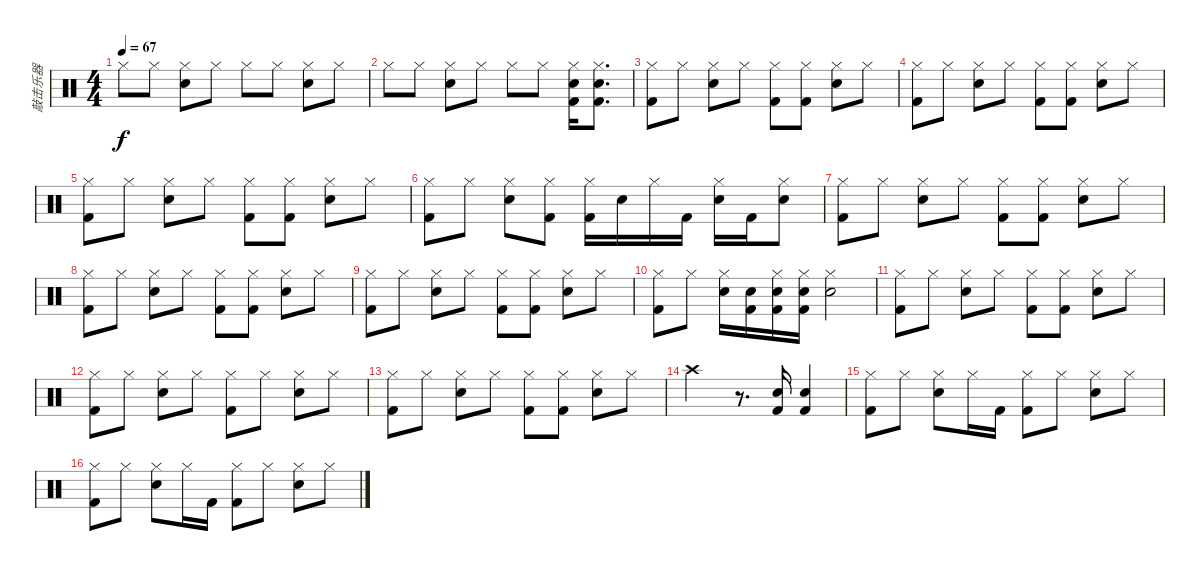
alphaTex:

\track ("敲击乐器" "敲击乐器") {instrument percussion}
\staff {score}
\articulation defaults
\ts (4 4)
\tempo 67
\clef neutral
\ks c "Hi-Hat (closed)".8{dy f} "Hi-Hat (closed)".8
("Hi-Hat (closed)" "Electric Snare (hit)").8 "Hi-Hat (closed)".8 "Hi-Hat (closed)".8 "Hi-Hat (closed)".8 ("Hi-Hat (closed)" "Electric Snare (hit)").8 "Hi-Hat (closed)".8 |
"Hi-Hat (closed)".8 "Hi-Hat (closed)".8 ("Hi-Hat (closed)" "Electric Snare (hit)").8 "Hi-Hat (closed)".8 "Hi-Hat (closed)".8 "Hi-Hat (closed)".8 ("Hi-Hat (closed)" "Electric Snare (hit)" "Kick (hit) 2").16 ("Hi-Hat (closed)" "Electric Snare (hit)" "Kick (hit) 2").8{d} |
("Hi-Hat (closed)" "Kick (hit) 2").8 "Hi-Hat (closed)".8 ("Hi-Hat (closed)" "Electric Snare (hit)").8 "Hi-Hat (closed)".8 ("Hi-Hat (closed)" "Kick (hit) 2").8 ("Hi-Hat (closed)" "Kick (hit) 2").8 ("Hi-Hat (closed)" "Electric Snare (hit)").8 "Hi-Hat (closed)".8 |
("Hi-Hat (closed)" "Kick (hit) 2").8 "Hi-Hat (closed)".8 ("Hi-Hat (closed)" "Electric Snare (hit)").8 "Hi-Hat (closed)".8 ("Hi-Hat (closed)" "Kick (hit) 2").8 ("Hi-Hat (closed)" "Kick (hit) 2").8 ("Hi-Hat (closed)" "Electric Snare (hit)").8 "Hi-Hat (closed)".8 |
("Hi-Hat (closed)" "Kick (hit) 2").8 "Hi-Hat (closed)".8 ("Hi-Hat (closed)" "Electric Snare (hit)").8 "Hi-Hat (closed)".8 ("Hi-Hat (closed)" "Kick (hit) 2").8 ("Hi-Hat (closed)" "Kick (hit) 2").8 ("Hi-Hat (closed)" "Electric Snare (hit)").8 "Hi-Hat (closed)".8 |
("Hi-Hat (closed)" "Kick (hit) 2").8 "Hi-Hat (closed)".8 ("Hi-Hat (closed)" "Electric Snare (hit)").8 ("Hi-Hat (closed)" "Kick (hit) 2").8 ("Hi-Hat (closed)" "Kick (hit) 2").16 "Electric Snare (hit)".16 "Hi-Hat (closed)".16 "Kick (hit) 2".16 ("Hi-Hat (closed)" "Electric Snare (hit)").16 "Kick (hit) 2".16 ("Hi-Hat (closed)" "Electric Snare (hit)").8 |
("Hi-Hat (closed)" "Kick (hit) 2").8 "Hi-Hat (closed)".8 ("Hi-Hat (closed)" "Electric Snare (hit)").8 "Hi-Hat (closed)".8 ("Hi-Hat (closed)" "Kick (hit) 2").8 ("Hi-Hat (closed)" "Kick (hit) 2").8 ("Hi-Hat (closed)" "Electric Snare (hit)").8 "Hi-Hat (closed)".8 |
("Hi-Hat (closed)" "Kick (hit) 2").8 "Hi-Hat (closed)".8 ("Hi-Hat (closed)" "Electric Snare (hit)").8 "Hi-Hat (closed)".8 ("Hi-Hat (closed)" "Kick (hit) 2").8 ("Hi-Hat (closed)" "Kick (hit) 2").8 ("Hi-Hat (closed)" "Electric Snare (hit)").8 "Hi-Hat (closed)".8 |
("Hi-Hat (closed)" "Kick (hit) 2").8 "Hi-Hat (closed)".8 ("Hi-Hat (closed)" "Electric Snare (hit)").8 "Hi-Hat (closed)".8 ("Hi-Hat (closed)" "Kick (hit) 2").8 ("Hi-Hat (closed)" "Kick (hit) 2").8 ("Hi-Hat (closed)" "Electric Snare (hit)").8 "Hi-Hat (closed)".8 |
("Hi-Hat (closed)" "Kick (hit) 2").8 "Hi-Hat (closed)".8 ("Hi-Hat (closed)" "Electric Snare (hit)").16 ("Electric Snare (hit)" "Kick (hit) 2").16 ("Hi-Hat (closed)" "Electric Snare (hit)" "Kick (hit) 2").16 ("Hi-Hat (closed)" "Electric Snare (hit)" "Kick (hit) 2").16 ("Hi-Hat (closed)" "Electric Snare (hit)").2 |
("Hi-Hat (closed)" "Kick (hit) 2").8 "Hi-Hat (closed)".8 ("Hi-Hat (closed)" "Electric Snare (hit)").8 "Hi-Hat (closed)".8 ("Hi-Hat (closed)" "Kick (hit) 2").8 ("Hi-Hat (closed)" "Kick (hit) 2").8 ("Hi-Hat (closed)" "Electric Snare (hit)").8 "Hi-Hat (closed)".8 |
("Hi-Hat (closed)" "Kick (hit) 2").8 "Hi-Hat (closed)".8 ("Hi-Hat (closed)" "Electric Snare (hit)").8 "Hi-Hat (closed)".8 ("Hi-Hat (closed)" "Kick (hit) 2").8 "Hi-Hat (closed)".8 ("Hi-Hat (closed)" "Electric Snare (hit)").8 "Hi-Hat (closed)".8 |
("Hi-Hat (closed)" "Kick (hit) 2").8 "Hi-Hat (closed)".8 ("Hi-Hat (closed)" "Electric Snare (hit)").8 "Hi-Hat (closed)".8 ("Hi-Hat (closed)" "Kick (hit) 2").8 ("Hi-Hat (closed)" "Kick (hit) 2").8 ("Hi-Hat (closed)" "Electric Snare (hit)").8 "Hi-Hat (closed)".8 |
"Crash high (hit)".2 r.8{d} ("Electric Snare (hit)" "Kick (hit) 2").16 ("Electric Snare (hit)" "Kick (hit) 2").4 |
("Hi-Hat (closed)" "Kick (hit) 2").8 "Hi-Hat (closed)".8 ("Hi-Hat (closed)" "Electric Snare (hit)").8 "Hi-Hat (closed)".16 "Kick (hit) 2".16 ("Hi-Hat (closed)" "Kick (hit) 2").8 "Hi-Hat (closed)".8 ("Hi-Hat (closed)" "Electric Snare (hit)").8 "Hi-Hat (closed)".8 |
("Hi-Hat (closed)" "Kick (hit) 2").8 "Hi-Hat (closed)".8 ("Hi-Hat (closed)" "Electric Snare (hit)").8 "Hi-Hat (closed)".16 "Kick (hit) 2".16 ("Hi-Hat (closed)" "Kick (hit) 2").8 "Hi-Hat (closed)".8 ("Hi-Hat (closed)" "Electric Snare (hit)").8 "Hi-Hat (closed)".8
